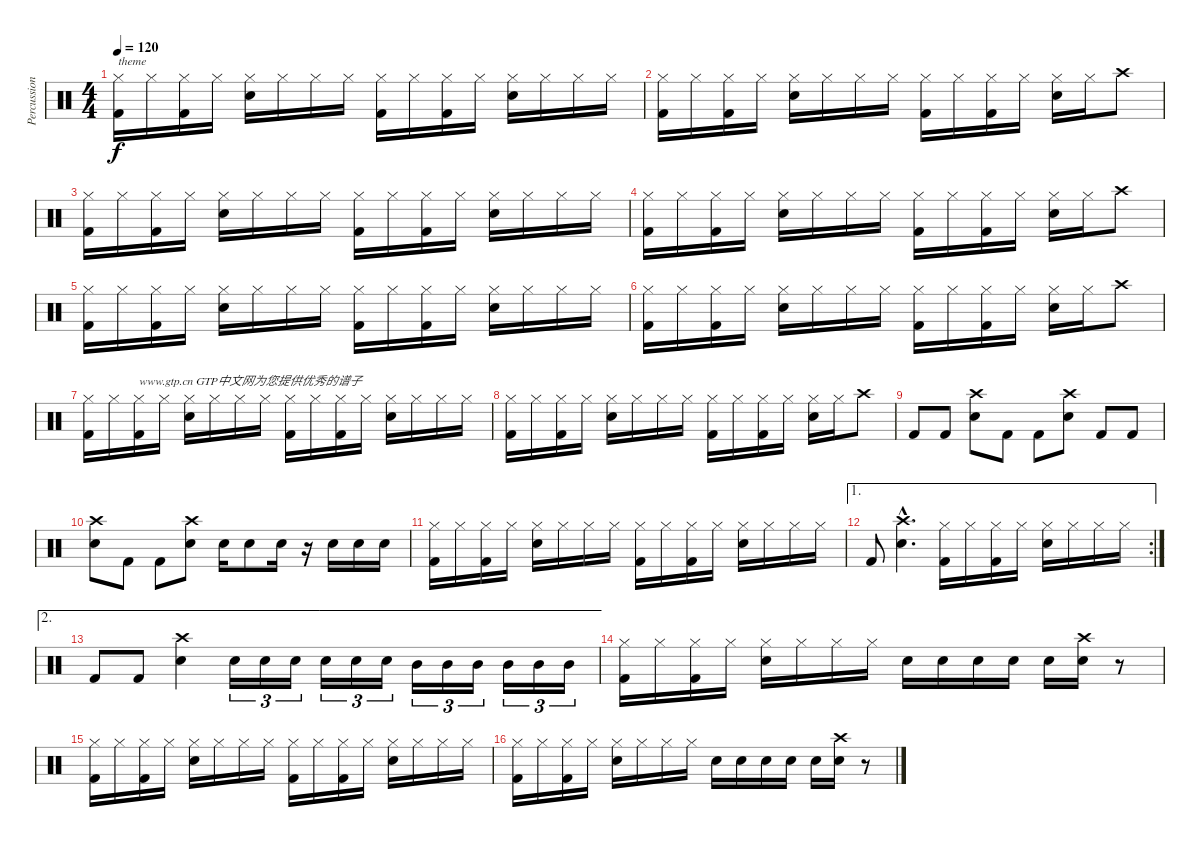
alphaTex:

\track ("Percussions" "Percussion") {instrument percussion}
\staff {score}
\articulation defaults
\ts (4 4)
\tempo 120
\clef neutral
\ks c
("Hi-Hat (closed)" "Kick (hit) 2").16{txt "theme" dy f} "Hi-Hat (closed)".16 ("Hi-Hat (closed)" "Kick (hit) 2").16 "Hi-Hat (closed)".16 ("Hi-Hat (closed)" "Electric Snare (hit)").16 "Hi-Hat (closed)".16 "Hi-Hat (closed)".16 "Hi-Hat (closed)".16 ("Hi-Hat (closed)" "Kick (hit) 2").16 "Hi-Hat (closed)".16 ("Hi-Hat (closed)" "Kick (hit) 2").16 "Hi-Hat (closed)".16 ("Hi-Hat (closed)" "Electric Snare (hit)").16 "Hi-Hat (closed)".16 "Hi-Hat (closed)".16 "Hi-Hat (closed)".16 |
("Hi-Hat (closed)" "Kick (hit) 2").16 "Hi-Hat (closed)".16 ("Hi-Hat (closed)" "Kick (hit) 2").16 "Hi-Hat (closed)".16 ("Hi-Hat (closed)" "Electric Snare (hit)").16 "Hi-Hat (closed)".16 "Hi-Hat (closed)".16 "Hi-Hat (closed)".16 ("Hi-Hat (closed)" "Kick (hit) 2").16 "Hi-Hat (closed)".16 ("Hi-Hat (closed)" "Kick (hit) 2").16 "Hi-Hat (closed)".16 ("Hi-Hat (closed)" "Electric Snare (hit)").16 "Hi-Hat (closed)".16 "Crash high (hit)".8 |
("Hi-Hat (closed)" "Kick (hit) 2").16 "Hi-Hat (closed)".16 ("Hi-Hat (closed)" "Kick (hit) 2").16 "Hi-Hat (closed)".16 ("Hi-Hat (closed)" "Electric Snare (hit)").16 "Hi-Hat (closed)".16 "Hi-Hat (closed)".16 "Hi-Hat (closed)".16 ("Hi-Hat (closed)" "Kick (hit) 2").16 "Hi-Hat (closed)".16 ("Hi-Hat (closed)" "Kick (hit) 2").16 "Hi-Hat (closed)".16 ("Hi-Hat (closed)" "Electric Snare (hit)").16 "Hi-Hat (closed)".16 "Hi-Hat (closed)".16 "Hi-Hat (closed)".16 |
("Hi-Hat (closed)" "Kick (hit) 2").16 "Hi-Hat (closed)".16 ("Hi-Hat (closed)" "Kick (hit) 2").16 "Hi-Hat (closed)".16 ("Hi-Hat (closed)" "Electric Snare (hit)").16 "Hi-Hat (closed)".16 "Hi-Hat (closed)".16 "Hi-Hat (closed)".16 ("Hi-Hat (closed)" "Kick (hit) 2").16 "Hi-Hat (closed)".16 ("Hi-Hat (closed)" "Kick (hit) 2").16 "Hi-Hat (closed)".16 ("Hi-Hat (closed)" "Electric Snare (hit)").16 "Hi-Hat (closed)".16 "Crash high (hit)".8 |
("Hi-Hat (closed)" "Kick (hit) 2").16 "Hi-Hat (closed)".16 ("Hi-Hat (closed)" "Kick (hit) 2").16 "Hi-Hat (closed)".16 ("Hi-Hat (closed)" "Electric Snare (hit)").16 "Hi-Hat (closed)".16 "Hi-Hat (closed)".16 "Hi-Hat (closed)".16 ("Hi-Hat (closed)" "Kick (hit) 2").16 "Hi-Hat (closed)".16 ("Hi-Hat (closed)" "Kick (hit) 2").16 "Hi-Hat (closed)".16 ("Hi-Hat (closed)" "Electric Snare (hit)").16 "Hi-Hat (closed)".16 "Hi-Hat (closed)".16 "Hi-Hat (closed)".16 |
("Hi-Hat (closed)" "Kick (hit) 2").16 "Hi-Hat (closed)".16 ("Hi-Hat (closed)" "Kick (hit) 2").16 "Hi-Hat (closed)".16 ("Hi-Hat (closed)" "Electric Snare (hit)").16 "Hi-Hat (closed)".16 "Hi-Hat (closed)".16 "Hi-Hat (closed)".16 ("Hi-Hat (closed)" "Kick (hit) 2").16 "Hi-Hat (closed)".16 ("Hi-Hat (closed)" "Kick (hit) 2").16 "Hi-Hat (closed)".16 ("Hi-Hat (closed)" "Electric Snare (hit)").16 "Hi-Hat (closed)".16 "Crash high (hit)".8 |
("Hi-Hat (closed)" "Kick (hit) 2").16 "Hi-Hat (closed)".16 ("Hi-Hat (closed)" "Kick (hit) 2").16{txt "www.gtp.cn GTP中文网为您提供优秀的谱子"} "Hi-Hat (closed)".16 ("Hi-Hat (closed)" "Electric Snare (hit)").16 "Hi-Hat (closed)".16 "Hi-Hat (closed)".16 "Hi-Hat (closed)".16 ("Hi-Hat (closed)" "Kick (hit) 2").16 "Hi-Hat (closed)".16 ("Hi-Hat (closed)" "Kick (hit) 2").16 "Hi-Hat (closed)".16 ("Hi-Hat (closed)" "Electric Snare (hit)").16 "Hi-Hat (closed)".16 "Hi-Hat (closed)".16 "Hi-Hat (closed)".16 |
("Hi-Hat (closed)" "Kick (hit) 2").16 "Hi-Hat (closed)".16 ("Hi-Hat (closed)" "Kick (hit) 2").16 "Hi-Hat (closed)".16 ("Hi-Hat (closed)" "Electric Snare (hit)").16 "Hi-Hat (closed)".16 "Hi-Hat (closed)".16 "Hi-Hat (closed)".16 ("Hi-Hat (closed)" "Kick (hit) 2").16 "Hi-Hat (closed)".16 ("Hi-Hat (closed)" "Kick (hit) 2").16 "Hi-Hat (closed)".16 ("Hi-Hat (closed)" "Electric Snare (hit)").16 "Hi-Hat (closed)".16 "Crash high (hit)".8 |
"Kick (hit) 2".8 "Kick (hit) 2".8 ("Crash high (hit)" "Electric Snare (hit)").8 "Kick (hit) 2".8 "Kick (hit) 2".8 ("Crash high (hit)" "Electric Snare (hit)").8 "Kick (hit) 2".8 "Kick (hit) 2".8 |
("Crash high (hit)" "Electric Snare (hit)").8 "Kick (hit) 2".8 "Kick (hit) 2".8 ("Crash high (hit)" "Electric Snare (hit)").8 "Electric Snare (hit)".16 "Electric Snare (hit)".8 "Electric Snare (hit)".16 r.16 "Electric Snare (hit)".16 "Electric Snare (hit)".16 "Electric Snare (hit)".16 |
("Hi-Hat (closed)" "Kick (hit) 2").16 "Hi-Hat (closed)".16 ("Hi-Hat (closed)" "Kick (hit) 2").16 "Hi-Hat (closed)".16 ("Hi-Hat (closed)" "Electric Snare (hit)").16 "Hi-Hat (closed)".16 "Hi-Hat (closed)".16 "Hi-Hat (closed)".16 ("Hi-Hat (closed)" "Kick (hit) 2").16 "Hi-Hat (closed)".16 ("Hi-Hat (closed)" "Kick (hit) 2").16 "Hi-Hat (closed)".16 ("Hi-Hat (closed)" "Electric Snare (hit)").16 "Hi-Hat (closed)".16 "Hi-Hat (closed)".16 "Hi-Hat (closed)".16 |
\ae 1
\rc 2 "Kick (hit) 2".8
("Crash high (hit)"{hac} "Electric Snare (hit)"{hac}).4{d} ("Hi-Hat (closed)" "Kick (hit) 2").16 "Hi-Hat (closed)".16 ("Hi-Hat (closed)" "Kick (hit) 2").16 "Hi-Hat (closed)".16 ("Hi-Hat (closed)" "Electric Snare (hit)").16 "Hi-Hat (closed)".16 "Hi-Hat (closed)".16 "Hi-Hat (closed)".16 |
\ae 2 "Kick (hit) 2".8 "Kick (hit) 2".8
("Crash high (hit)" "Electric Snare (hit)").4 "Electric Snare (hit)".16{tu (3 2)} "Electric Snare (hit)".16{tu (3 2)} "Electric Snare (hit)".16{tu (3 2)} "Electric Snare (hit)".16{tu (3 2)} "Electric Snare (hit)".16{tu (3 2)} "Electric Snare (hit)".16{tu (3 2)} "Mid Tom (hit)".16{tu (3 2)} "Mid Tom (hit)".16{tu (3 2)} "Mid Tom (hit)".16{tu (3 2)} "Mid Tom (hit)".16{tu (3 2)} "Mid Tom (hit)".16{tu (3 2)} "Mid Tom (hit)".16{tu (3 2)} |
("Hi-Hat (closed)" "Kick (hit) 2").16 "Hi-Hat (closed)".16 ("Hi-Hat (closed)" "Kick (hit) 2").16 "Hi-Hat (closed)".16 ("Hi-Hat (closed)" "Electric Snare (hit)").16 "Hi-Hat (closed)".16 "Hi-Hat (closed)".16 "Hi-Hat (closed)".16 "Electric Snare (hit)".16 "Electric Snare (hit)".16 "Electric Snare (hit)".16 "Electric Snare (hit)".16 "Electric Snare (hit)".16 ("Crash high (hit)" "Electric Snare (hit)").16 r.8 |
("Hi-Hat (closed)" "Kick (hit) 2").16 "Hi-Hat (closed)".16 ("Hi-Hat (closed)" "Kick (hit) 2").16 "Hi-Hat (closed)".16 ("Hi-Hat (closed)" "Electric Snare (hit)").16 "Hi-Hat (closed)".16 "Hi-Hat (closed)".16 "Hi-Hat (closed)".16 ("Hi-Hat (closed)" "Kick (hit) 2").16 "Hi-Hat (closed)".16 ("Hi-Hat (closed)" "Kick (hit) 2").16 "Hi-Hat (closed)".16 ("Hi-Hat (closed)" "Electric Snare (hit)").16 "Hi-Hat (closed)".16 "Hi-Hat (closed)".16 "Hi-Hat (closed)".16 |
("Hi-Hat (closed)" "Kick (hit) 2").16 "Hi-Hat (closed)".16 ("Hi-Hat (closed)" "Kick (hit) 2").16 "Hi-Hat (closed)".16 ("Hi-Hat (closed)" "Electric Snare (hit)").16 "Hi-Hat (closed)".16 "Hi-Hat (closed)".16 "Hi-Hat (closed)".16 "Electric Snare (hit)".16 "Electric Snare (hit)".16 "Electric Snare (hit)".16 "Electric Snare (hit)".16 "Electric Snare (hit)".16 ("Crash high (hit)" "Electric Snare (hit)").16 r.8
